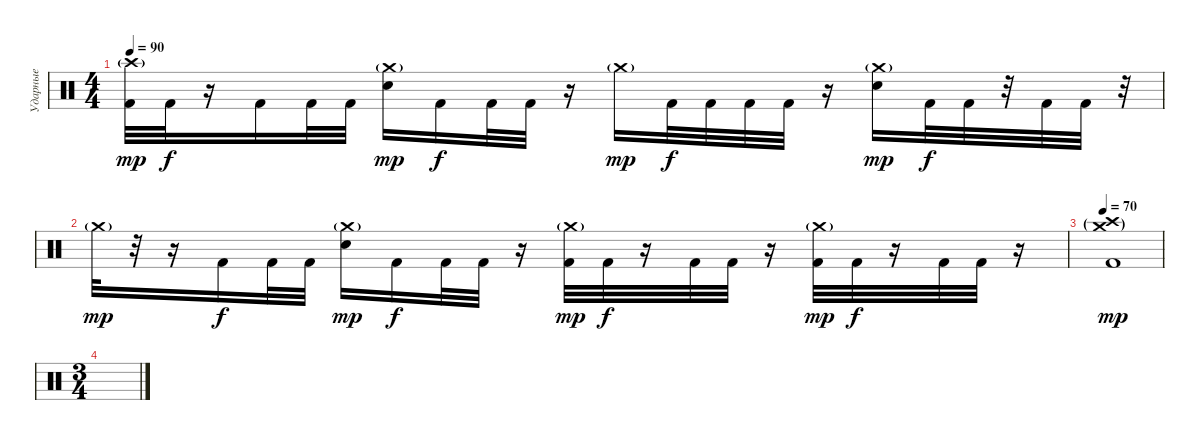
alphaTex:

\track ("Ударные" "Ударные") {instrument percussion}
\staff {score}
\articulation defaults
\ts (4 4)
\tempo 90
\clef neutral
\ks c
("Crash high (hit)"{g} "Kick (hit) 2").32{dy mp} "Kick (hit) 2".32{dy f} r.16 "Kick (hit) 2".16 "Kick (hit) 2".32 "Kick (hit) 2".32 ("Crash medium (hit)"{g} "Electric Snare (hit)").16{dy mp} "Kick (hit) 2".16{dy f} "Kick (hit) 2".32 "Kick (hit) 2".32 r.16 "Crash medium (hit)"{g}.16{dy mp} "Kick (hit) 2".32{dy f} "Kick (hit) 2".32 "Kick (hit) 2".32 "Kick (hit) 2".32 r.16 ("Crash medium (hit)"{g} "Electric Snare (hit)").16{dy mp} "Kick (hit) 2".32{dy f} "Kick (hit) 2".32 r.32 "Kick (hit) 2".32 "Kick (hit) 2".32 r.32 |
"Crash medium (hit)"{g}.32{dy mp} r.32 r.16 "Kick (hit) 2".16{dy f} "Kick (hit) 2".32 "Kick (hit) 2".32 ("Crash medium (hit)"{g} "Electric Snare (hit)").16{dy mp} "Kick (hit) 2".16{dy f} "Kick (hit) 2".32 "Kick (hit) 2".32 r.16 ("Crash medium (hit)"{g} "Kick (hit) 2").32{dy mp} "Kick (hit) 2".32{dy f} r.16 "Kick (hit) 2".32 "Kick (hit) 2".32 r.16 ("Crash medium (hit)"{g} "Kick (hit) 2").32{dy mp} "Kick (hit) 2".32{dy f} r.16 "Kick (hit) 2".32 "Kick (hit) 2".32 r.16 |
\tempo 70
("Crash high (hit)"{g} "Crash medium (hit)"{g} "Kick (hit) 2").1{dy mp} |
\ts (3 4)
